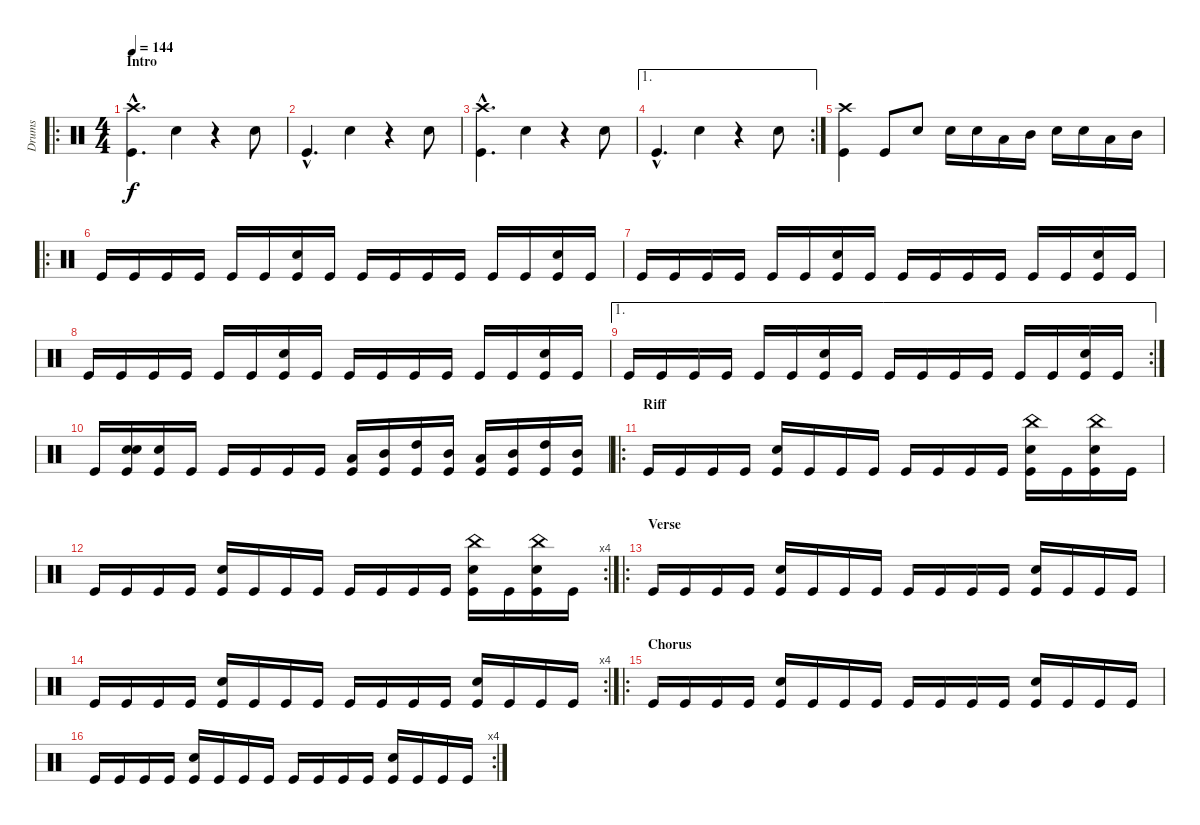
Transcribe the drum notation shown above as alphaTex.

\track ("Drums" "Drums") {instrument percussion}
\staff {score}
\articulation defaults
\ro
\ts (4 4)
\section ("" "Intro")
\tempo 144
\clef neutral
\ks c
("Crash high (hit)"{hac} "Kick (hit)"{hac}).4{d dy f} "Snare (hit) 2".4 r.4 "Snare (hit) 2".8 |
"Kick (hit)"{hac}.4{d} "Snare (hit) 2".4 r.4 "Snare (hit) 2".8 |
("Crash high (hit)"{hac} "Kick (hit)"{hac}).4{d} "Snare (hit) 2".4 r.4 "Snare (hit) 2".8 |
\ae 1
\rc 2 "Kick (hit)"{hac}.4{d} "Snare (hit) 2".4
r.4 "Snare (hit) 2".8 |
("Crash high (hit)" "Kick (hit)").4 "Kick (hit)".8 "Snare (hit) 2".8 "Snare (hit) 2".16 "Snare (hit) 2".16 "Low Tom (hit)".16 "Mid Tom (hit)".16 "Snare (hit) 2".16 "Snare (hit) 2".16 "Low Tom (hit)".16 "Mid Tom (hit)".16 |
\ro "Kick (hit)".16 "Kick (hit)".16 "Kick (hit)".16 "Kick (hit)".16 "Kick (hit)".16 "Kick (hit)".16
("Snare (hit) 2" "Kick (hit)").16 "Kick (hit)".16 "Kick (hit)".16 "Kick (hit)".16 "Kick (hit)".16 "Kick (hit)".16 "Kick (hit)".16 "Kick (hit)".16 ("Snare (hit) 2" "Kick (hit)").16 "Kick (hit)".16 |
"Kick (hit)".16 "Kick (hit)".16 "Kick (hit)".16 "Kick (hit)".16 "Kick (hit)".16 "Kick (hit)".16 ("Snare (hit) 2" "Kick (hit)").16 "Kick (hit)".16 "Kick (hit)".16 "Kick (hit)".16 "Kick (hit)".16 "Kick (hit)".16 "Kick (hit)".16 "Kick (hit)".16 ("Snare (hit) 2" "Kick (hit)").16 "Kick (hit)".16 |
"Kick (hit)".16 "Kick (hit)".16 "Kick (hit)".16 "Kick (hit)".16 "Kick (hit)".16 "Kick (hit)".16 ("Snare (hit) 2" "Kick (hit)").16 "Kick (hit)".16 "Kick (hit)".16 "Kick (hit)".16 "Kick (hit)".16 "Kick (hit)".16 "Kick (hit)".16 "Kick (hit)".16 ("Snare (hit) 2" "Kick (hit)").16 "Kick (hit)".16 |
\ae 1
\rc 2 "Kick (hit)".16 "Kick (hit)".16 "Kick (hit)".16 "Kick (hit)".16 "Kick (hit)".16 "Kick (hit)".16
("Snare (hit) 2" "Kick (hit)").16 "Kick (hit)".16 "Kick (hit)".16 "Kick (hit)".16 "Kick (hit)".16 "Kick (hit)".16 "Kick (hit)".16 "Kick (hit)".16 ("Snare (hit) 2" "Kick (hit)").16 "Kick (hit)".16 |
"Kick (hit)".16 ("Snare (hit) 2" "Snare (hit) 2" "Kick (hit)").16 ("Snare (hit) 2" "Kick (hit)").16 "Kick (hit)".16 "Kick (hit)".16 "Kick (hit)".16 "Kick (hit)".16 "Kick (hit)".16 ("Low Tom (hit)" "Kick (hit)").16 ("Mid Tom (hit)" "Kick (hit)").16 ("High Tom (hit)" "Kick (hit)").16 ("Mid Tom (hit)" "Kick (hit)").16 ("Low Tom (hit)" "Kick (hit)").16 ("Mid Tom (hit)" "Kick (hit)").16 ("High Tom (hit)" "Kick (hit)").16 ("Mid Tom (hit)" "Kick (hit)").16 |
\ro
\section ("" "Riff")
"Kick (hit)".16 "Kick (hit)".16 "Kick (hit)".16 "Kick (hit)".16 ("Snare (hit) 2" "Kick (hit)").16 "Kick (hit)".16 "Kick (hit)".16 "Kick (hit)".16 "Kick (hit)".16 "Kick (hit)".16 "Kick (hit)".16 "Kick (hit)".16 ("China (hit)" "Snare (hit) 2" "Kick (hit)").16 "Kick (hit)".16 ("China (hit)" "Snare (hit) 2" "Kick (hit)").16 "Kick (hit)".16 |
\rc 4 "Kick (hit)".16 "Kick (hit)".16 "Kick (hit)".16 "Kick (hit)".16
("Snare (hit) 2" "Kick (hit)").16 "Kick (hit)".16 "Kick (hit)".16 "Kick (hit)".16 "Kick (hit)".16 "Kick (hit)".16 "Kick (hit)".16 "Kick (hit)".16 ("China (hit)" "Snare (hit) 2" "Kick (hit)").16 "Kick (hit)".16 ("China (hit)" "Snare (hit) 2" "Kick (hit)").16 "Kick (hit)".16 |
\ro
\section ("" "Verse")
"Kick (hit)".16 "Kick (hit)".16 "Kick (hit)".16 "Kick (hit)".16 ("Snare (hit) 2" "Kick (hit)").16 "Kick (hit)".16 "Kick (hit)".16 "Kick (hit)".16 "Kick (hit)".16 "Kick (hit)".16 "Kick (hit)".16 "Kick (hit)".16 ("Snare (hit) 2" "Kick (hit)").16 "Kick (hit)".16 "Kick (hit)".16 "Kick (hit)".16 |
\rc 4 "Kick (hit)".16 "Kick (hit)".16 "Kick (hit)".16 "Kick (hit)".16
("Snare (hit) 2" "Kick (hit)").16 "Kick (hit)".16 "Kick (hit)".16 "Kick (hit)".16 "Kick (hit)".16 "Kick (hit)".16 "Kick (hit)".16 "Kick (hit)".16 ("Snare (hit) 2" "Kick (hit)").16 "Kick (hit)".16 "Kick (hit)".16 "Kick (hit)".16 |
\ro
\section ("" "Chorus")
"Kick (hit)".16 "Kick (hit)".16 "Kick (hit)".16 "Kick (hit)".16 ("Snare (hit) 2" "Kick (hit)").16 "Kick (hit)".16 "Kick (hit)".16 "Kick (hit)".16 "Kick (hit)".16 "Kick (hit)".16 "Kick (hit)".16 "Kick (hit)".16 ("Snare (hit) 2" "Kick (hit)").16 "Kick (hit)".16 "Kick (hit)".16 "Kick (hit)".16 |
\rc 4 "Kick (hit)".16 "Kick (hit)".16 "Kick (hit)".16 "Kick (hit)".16
("Snare (hit) 2" "Kick (hit)").16 "Kick (hit)".16 "Kick (hit)".16 "Kick (hit)".16 "Kick (hit)".16 "Kick (hit)".16 "Kick (hit)".16 "Kick (hit)".16 ("Snare (hit) 2" "Kick (hit)").16 "Kick (hit)".16 "Kick (hit)".16 "Kick (hit)".16
